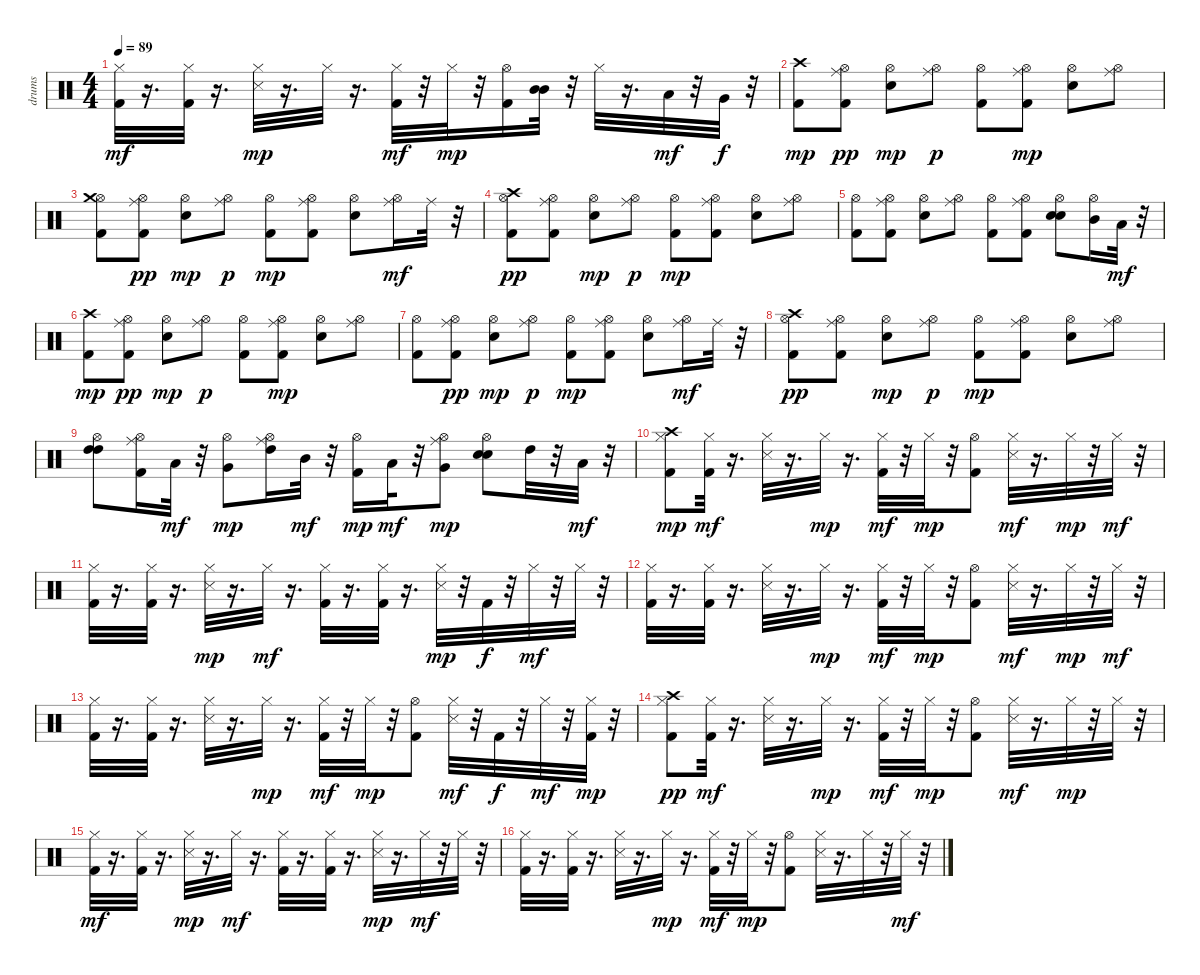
\track ("drums" "drums") {instrument percussion}
\staff {score}
\articulation defaults
\ts (4 4)
\tempo 89
\clef neutral
\ks c
("Kick (hit) 2" "Hi-Hat (closed)").32{dy mf} r.16{d} ("Kick (hit) 2" "Hi-Hat (closed)").32 r.16{d} ("Snare (side stick) 3" "Hi-Hat (closed)").32{dy mp} r.16{d} "Hi-Hat (closed)".32 r.16{d} ("Kick (hit) 2" "Hi-Hat (closed)").32{dy mf} r.32 "Hi-Hat (closed)".32{dy mp} r.32 ("Kick (hit) 2" "Hi-Hat (open)").16 ("Mid Tom (hit)" "Mid Tom (hit)").32 r.32 "Hi-Hat (closed)".32 r.16{d} "Low Tom (hit)".32{dy mf} r.32 "Very Low Tom (hit)".32{dy f} r.32 |
("Kick (hit) 2" "Crash high (hit)").8{dy mp} ("Kick (hit) 2" "Hi-Hat (open)" "Ride (middle)").8{dy pp} ("Snare (hit) 2" "Hi-Hat (open)").8{dy mp} ("Hi-Hat (open)" "Ride (middle)").8{dy p} ("Kick (hit) 2" "Hi-Hat (open)").8 ("Kick (hit) 2" "Hi-Hat (open)" "Ride (middle)").8{dy mp} ("Snare (hit) 2" "Hi-Hat (open)").8 ("Hi-Hat (open)" "Ride (middle)").8 |
("Kick (hit) 2" "Hi-Hat (open)" "Crash medium (hit)").8 ("Kick (hit) 2" "Hi-Hat (open)" "Ride (middle)").8{dy pp} ("Snare (hit) 2" "Hi-Hat (open)").8{dy mp} ("Hi-Hat (open)" "Ride (middle)").8{dy p} ("Kick (hit) 2" "Hi-Hat (open)").8{dy mp} ("Kick (hit) 2" "Hi-Hat (open)" "Ride (middle)").8 ("Snare (hit) 2" "Hi-Hat (open)").8 ("Hi-Hat (open)" "Ride (middle)").16{dy mf} "Ride (middle)".32 r.32 |
("Kick (hit) 2" "Hi-Hat (open)" "Crash high (hit)").8{dy pp} ("Kick (hit) 2" "Hi-Hat (open)" "Ride (middle)").8 ("Snare (hit) 2" "Hi-Hat (open)").8{dy mp} ("Hi-Hat (open)" "Ride (middle)").8{dy p} ("Kick (hit) 2" "Hi-Hat (open)").8{dy mp} ("Kick (hit) 2" "Hi-Hat (open)" "Ride (middle)").8 ("Snare (hit) 2" "Hi-Hat (open)").8 ("Hi-Hat (open)" "Ride (middle)").8 |
("Kick (hit) 2" "Hi-Hat (open)").8 ("Kick (hit) 2" "Hi-Hat (open)" "Ride (middle)").8 ("Snare (hit) 2" "Hi-Hat (open)").8 ("Hi-Hat (open)" "Ride (middle)").8 ("Kick (hit) 2" "Hi-Hat (open)").8 ("Kick (hit) 2" "Hi-Hat (open)" "Ride (middle)").8 ("Snare (hit) 2" "Snare (hit) 2" "Hi-Hat (open)").8 ("Hi-Hat (open)" "Mid Tom (hit)").16 "Low Tom (hit)".32{dy mf} r.32 |
("Kick (hit) 2" "Crash high (hit)").8{dy mp} ("Kick (hit) 2" "Hi-Hat (open)" "Ride (middle)").8{dy pp} ("Snare (hit) 2" "Hi-Hat (open)").8{dy mp} ("Hi-Hat (open)" "Ride (middle)").8{dy p} ("Kick (hit) 2" "Hi-Hat (open)").8 ("Kick (hit) 2" "Hi-Hat (open)" "Ride (middle)").8{dy mp} ("Snare (hit) 2" "Hi-Hat (open)").8 ("Hi-Hat (open)" "Ride (middle)").8 |
("Kick (hit) 2" "Hi-Hat (open)").8 ("Kick (hit) 2" "Hi-Hat (open)" "Ride (middle)").8{dy pp} ("Snare (hit) 2" "Hi-Hat (open)").8{dy mp} ("Hi-Hat (open)" "Ride (middle)").8{dy p} ("Kick (hit) 2" "Hi-Hat (open)").8{dy mp} ("Kick (hit) 2" "Hi-Hat (open)" "Ride (middle)").8 ("Snare (hit) 2" "Hi-Hat (open)").8 ("Hi-Hat (open)" "Ride (middle)").16{dy mf} "Ride (middle)".32 r.32 |
("Kick (hit) 2" "Hi-Hat (open)" "Crash high (hit)").8{dy pp} ("Kick (hit) 2" "Hi-Hat (open)" "Ride (middle)").8 ("Snare (hit) 2" "Hi-Hat (open)").8{dy mp} ("Hi-Hat (open)" "Ride (middle)").8{dy p} ("Kick (hit) 2" "Hi-Hat (open)").8{dy mp} ("Kick (hit) 2" "Hi-Hat (open)" "Ride (middle)").8 ("Snare (hit) 2" "Hi-Hat (open)").8 ("Hi-Hat (open)" "Ride (middle)").8 |
("High Tom (hit)" "Hi-Hat (open)" "High Tom (hit)").8 ("Kick (hit) 2" "Hi-Hat (open)" "Ride (middle)").16 "Low Tom (hit)".32{dy mf} r.32 ("Very Low Tom (hit)" "Hi-Hat (open)").8{dy mp} ("Hi-Hat (open)" "High Tom (hit)" "Ride (middle)").16 "Mid Tom (hit)".32{dy mf} r.32 ("Kick (hit) 2" "Hi-Hat (open)").16{dy mp} "Low Tom (hit)".32{dy mf} r.32 ("Very Low Tom (hit)" "Hi-Hat (open)" "Ride (middle)").8{dy mp} ("Snare (hit) 2" "Snare (hit) 2" "Hi-Hat (open)").8 "High Tom (hit)".32 r.32 "Low Tom (hit)".32{dy mf} r.32 |
("Kick (hit) 2" "Hi-Hat (closed)" "Crash high (hit)").8{dy mp} ("Kick (hit) 2" "Hi-Hat (closed)").32{dy mf} r.16{d} ("Snare (side stick) 3" "Hi-Hat (closed)").32 r.16{d} "Hi-Hat (closed)".32{dy mp} r.16{d} ("Kick (hit) 2" "Hi-Hat (closed)").32{dy mf} r.32 "Hi-Hat (closed)".32{dy mp} r.32 ("Kick (hit) 2" "Hi-Hat (open)").8 ("Snare (side stick) 3" "Hi-Hat (closed)").32{dy mf} r.16{d} "Hi-Hat (closed)".32{dy mp} r.32 "Hi-Hat (closed)".32{dy mf} r.32 |
("Kick (hit) 2" "Hi-Hat (closed)").32 r.16{d} ("Kick (hit) 2" "Hi-Hat (closed)").32 r.16{d} ("Snare (side stick) 3" "Hi-Hat (closed)").32{dy mp} r.16{d} "Hi-Hat (closed)".32{dy mf} r.16{d} ("Kick (hit) 2" "Hi-Hat (closed)").32 r.16{d} ("Kick (hit) 2" "Hi-Hat (closed)").32 r.16{d} ("Snare (side stick) 3" "Hi-Hat (closed)").32{dy mp} r.32 "Kick (hit) 2".32{dy f} r.32 "Hi-Hat (closed)".32{dy mf} r.32 "Hi-Hat (closed)".32 r.32 |
("Kick (hit) 2" "Hi-Hat (closed)").32 r.16{d} ("Kick (hit) 2" "Hi-Hat (closed)").32 r.16{d} ("Snare (side stick) 3" "Hi-Hat (closed)").32 r.16{d} "Hi-Hat (closed)".32{dy mp} r.16{d} ("Kick (hit) 2" "Hi-Hat (closed)").32{dy mf} r.32 "Hi-Hat (closed)".32{dy mp} r.32 ("Kick (hit) 2" "Hi-Hat (open)").8 ("Snare (side stick) 3" "Hi-Hat (closed)").32{dy mf} r.16{d} "Hi-Hat (closed)".32{dy mp} r.32 "Hi-Hat (closed)".32{dy mf} r.32 |
("Kick (hit) 2" "Hi-Hat (closed)").32 r.16{d} ("Kick (hit) 2" "Hi-Hat (closed)").32 r.16{d} ("Snare (side stick) 3" "Hi-Hat (closed)").32 r.16{d} "Hi-Hat (closed)".32{dy mp} r.16{d} ("Kick (hit) 2" "Hi-Hat (closed)").32{dy mf} r.32 "Hi-Hat (closed)".32{dy mp} r.32 ("Kick (hit) 2" "Hi-Hat (open)").8 ("Snare (side stick) 3" "Hi-Hat (closed)").32{dy mf} r.32 "Kick (hit) 2".32{dy f} r.32 "Hi-Hat (closed)".32{dy mf} r.32 ("Kick (hit) 2" "Hi-Hat (closed)").32{dy mp} r.32 |
("Kick (hit) 2" "Hi-Hat (closed)" "Crash high (hit)").8{dy pp} ("Kick (hit) 2" "Hi-Hat (closed)").32{dy mf} r.16{d} ("Snare (side stick) 3" "Hi-Hat (closed)").32 r.16{d} "Hi-Hat (closed)".32{dy mp} r.16{d} ("Kick (hit) 2" "Hi-Hat (closed)").32{dy mf} r.32 "Hi-Hat (closed)".32{dy mp} r.32 ("Kick (hit) 2" "Hi-Hat (open)").8 ("Snare (side stick) 3" "Hi-Hat (closed)").32{dy mf} r.16{d} "Hi-Hat (closed)".32{dy mp} r.32 "Hi-Hat (closed)".32 r.32 |
("Kick (hit) 2" "Hi-Hat (closed)").32{dy mf} r.16{d} ("Kick (hit) 2" "Hi-Hat (closed)").32 r.16{d} ("Snare (side stick) 3" "Hi-Hat (closed)").32{dy mp} r.16{d} "Hi-Hat (closed)".32{dy mf} r.16{d} ("Kick (hit) 2" "Hi-Hat (closed)").32 r.16{d} ("Kick (hit) 2" "Hi-Hat (closed)").32 r.16{d} ("Snare (side stick) 3" "Hi-Hat (closed)").32{dy mp} r.16{d} "Hi-Hat (closed)".32{dy mf} r.32 "Hi-Hat (closed)".32 r.32 |
("Kick (hit) 2" "Hi-Hat (closed)").32 r.16{d} ("Kick (hit) 2" "Hi-Hat (closed)").32 r.16{d} ("Snare (side stick) 3" "Hi-Hat (closed)").32 r.16{d} "Hi-Hat (closed)".32{dy mp} r.16{d} ("Kick (hit) 2" "Hi-Hat (closed)").32{dy mf} r.32 "Hi-Hat (closed)".32{dy mp} r.32 ("Kick (hit) 2" "Hi-Hat (open)").8 ("Snare (side stick) 3" "Hi-Hat (closed)").32 r.16{d} "Hi-Hat (closed)".32 r.32 "Hi-Hat (closed)".32{dy mf} r.32
